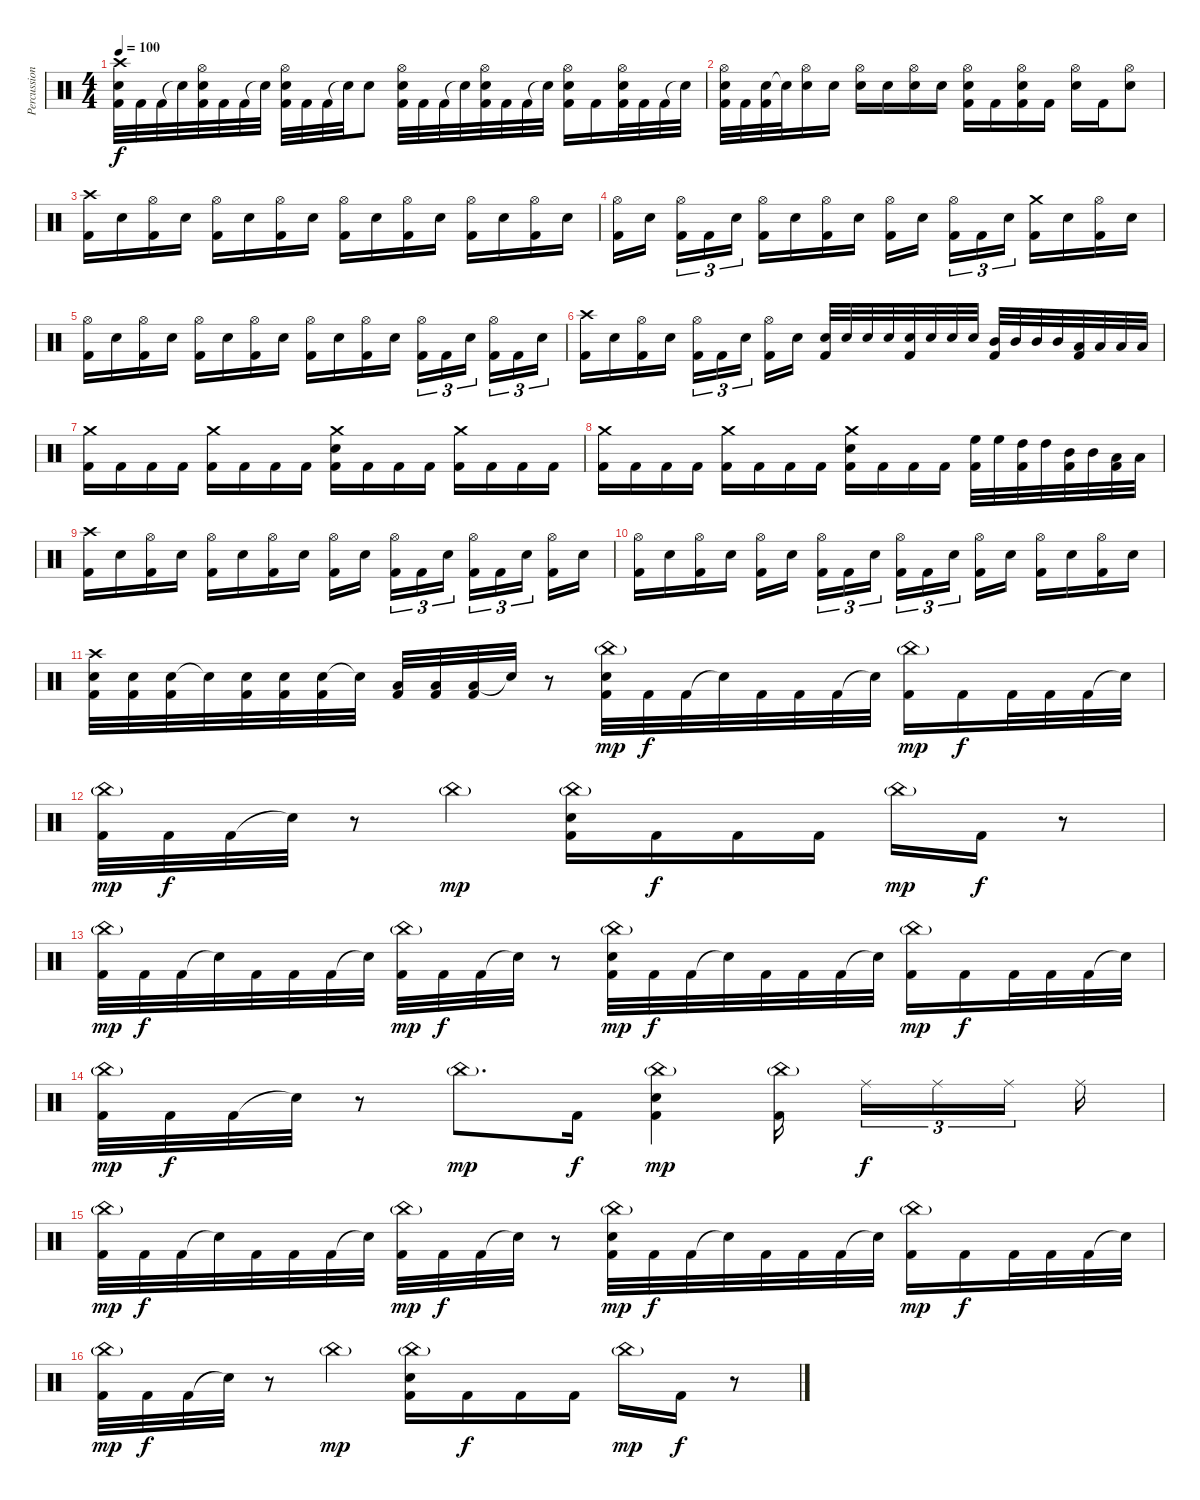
\track ("Percussion" "Percussion") {instrument percussion}
\staff {score}
\articulation defaults
\ts (4 4)
\tempo 100
\clef neutral
\ks c
("Crash high (hit)" "Electric Snare (hit)" "Kick (hit) 2").32{dy f} "Kick (hit) 2".32 "Kick (hit) 2".32 "Snare (hit)"{t}.32 ("Hi-Hat (open)" "Electric Snare (hit)" "Kick (hit) 2").32 "Kick (hit) 2".32 "Kick (hit) 2".32 "Snare (hit)"{t}.32 ("Hi-Hat (open)" "Electric Snare (hit)" "Kick (hit) 2").32 "Kick (hit) 2".32 "Kick (hit) 2".32 "Snare (hit)"{t}.32 "Electric Snare (hit)".8 ("Hi-Hat (open)" "Electric Snare (hit)" "Kick (hit) 2").32 "Kick (hit) 2".32 "Kick (hit) 2".32 "Snare (hit)"{t}.32 ("Hi-Hat (open)" "Electric Snare (hit)" "Kick (hit) 2").32 "Kick (hit) 2".32 "Kick (hit) 2".32 "Snare (hit)"{t}.32 ("Hi-Hat (open)" "Electric Snare (hit)" "Kick (hit) 2").16 "Kick (hit) 2".16 ("Hi-Hat (open)" "Electric Snare (hit)" "Kick (hit) 2").32 "Kick (hit) 2".32 "Kick (hit) 2".32 "Snare (hit)"{t}.32 |
("Hi-Hat (open)" "Electric Snare (hit)" "Kick (hit) 2").32 "Kick (hit) 2".32 ("Electric Snare (hit)" "Kick (hit) 2").32 "Snare (hit)"{t}.32 ("Hi-Hat (open)" "Electric Snare (hit)").16 "Electric Snare (hit)".16 ("Hi-Hat (open)" "Electric Snare (hit)").16 "Electric Snare (hit)".16 ("Hi-Hat (open)" "Electric Snare (hit)").16 "Electric Snare (hit)".16 ("Hi-Hat (open)" "Electric Snare (hit)" "Kick (hit) 2").16 "Kick (hit) 2".16 ("Hi-Hat (open)" "Electric Snare (hit)" "Kick (hit) 2").16 "Kick (hit) 2".16 ("Hi-Hat (open)" "Electric Snare (hit)").16 "Kick (hit) 2".16 ("Hi-Hat (open)" "Electric Snare (hit)").8 |
("Crash high (hit)" "Kick (hit) 2").16 "Electric Snare (hit)".16 ("Hi-Hat (open)" "Kick (hit) 2").16 "Electric Snare (hit)".16 ("Hi-Hat (open)" "Kick (hit) 2").16 "Electric Snare (hit)".16 ("Hi-Hat (open)" "Kick (hit) 2").16 "Electric Snare (hit)".16 ("Hi-Hat (open)" "Kick (hit) 2").16 "Electric Snare (hit)".16 ("Hi-Hat (open)" "Kick (hit) 2").16 "Electric Snare (hit)".16 ("Hi-Hat (open)" "Kick (hit) 2").16 "Electric Snare (hit)".16 ("Hi-Hat (open)" "Kick (hit) 2").16 "Electric Snare (hit)".16 |
("Hi-Hat (open)" "Kick (hit) 2").16 "Electric Snare (hit)".16{beam splitsecondary} ("Hi-Hat (open)" "Kick (hit) 2").16{tu (3 2)} "Kick (hit) 2".16{tu (3 2)} "Electric Snare (hit)".16{tu (3 2)} ("Hi-Hat (open)" "Kick (hit) 2").16 "Electric Snare (hit)".16 ("Hi-Hat (open)" "Kick (hit) 2").16 "Electric Snare (hit)".16 ("Hi-Hat (open)" "Kick (hit) 2").16 "Electric Snare (hit)".16{beam splitsecondary} ("Hi-Hat (open)" "Kick (hit) 2").16{tu (3 2)} "Kick (hit) 2".16{tu (3 2)} "Electric Snare (hit)".16{tu (3 2)} ("Crash medium (hit)" "Kick (hit) 2").16 "Electric Snare (hit)".16 ("Hi-Hat (open)" "Kick (hit) 2").16 "Electric Snare (hit)".16 |
("Hi-Hat (open)" "Kick (hit) 2").16 "Electric Snare (hit)".16 ("Hi-Hat (open)" "Kick (hit) 2").16 "Electric Snare (hit)".16 ("Hi-Hat (open)" "Kick (hit) 2").16 "Electric Snare (hit)".16 ("Hi-Hat (open)" "Kick (hit) 2").16 "Electric Snare (hit)".16 ("Hi-Hat (open)" "Kick (hit) 2").16 "Electric Snare (hit)".16 ("Hi-Hat (open)" "Kick (hit) 2").16 "Electric Snare (hit)".16 ("Hi-Hat (open)" "Kick (hit) 2").16{tu (3 2)} "Kick (hit) 2".16{tu (3 2)} "Electric Snare (hit)".16{tu (3 2) beam splitsecondary} ("Hi-Hat (open)" "Kick (hit) 2").16{tu (3 2)} "Kick (hit) 2".16{tu (3 2)} "Electric Snare (hit)".16{tu (3 2)} |
("Crash high (hit)" "Kick (hit) 2").16 "Electric Snare (hit)".16 ("Hi-Hat (open)" "Kick (hit) 2").16 "Electric Snare (hit)".16 ("Hi-Hat (open)" "Kick (hit) 2").16{tu (3 2)} "Kick (hit) 2".16{tu (3 2)} "Electric Snare (hit)".16{tu (3 2) beam splitsecondary} ("Hi-Hat (open)" "Kick (hit) 2").16 "Electric Snare (hit)".16 ("Electric Snare (hit)" "Kick (hit) 2").32 "Electric Snare (hit)".32 "Electric Snare (hit)".32 "Electric Snare (hit)".32 ("Electric Snare (hit)" "Kick (hit) 2").32 "Electric Snare (hit)".32 "Electric Snare (hit)".32 "Electric Snare (hit)".32 ("Mid Tom (hit)" "Kick (hit) 2").32 "Mid Tom (hit)".32 "Mid Tom (hit)".32 "Mid Tom (hit)".32 ("Low Tom (hit)" "Kick (hit) 2").32 "Low Tom (hit)".32 "Low Tom (hit)".32 "Low Tom (hit)".32 |
("Crash medium (hit)" "Kick (hit) 2").16 "Kick (hit) 2".16 "Kick (hit) 2".16 "Kick (hit) 2".16 ("Crash medium (hit)" "Kick (hit) 2").16 "Kick (hit) 2".16 "Kick (hit) 2".16 "Kick (hit) 2".16 ("Crash medium (hit)" "Electric Snare (hit)" "Kick (hit) 2").16 "Kick (hit) 2".16 "Kick (hit) 2".16 "Kick (hit) 2".16 ("Crash medium (hit)" "Kick (hit) 2").16 "Kick (hit) 2".16 "Kick (hit) 2".16 "Kick (hit) 2".16 |
("Crash medium (hit)" "Kick (hit) 2").16 "Kick (hit) 2".16 "Kick (hit) 2".16 "Kick (hit) 2".16 ("Crash medium (hit)" "Kick (hit) 2").16 "Kick (hit) 2".16 "Kick (hit) 2".16 "Kick (hit) 2".16 ("Crash medium (hit)" "Electric Snare (hit)" "Kick (hit) 2").16 "Kick (hit) 2".16 "Kick (hit) 2".16 "Kick (hit) 2".16 ("High Floor Tom (hit)" "Kick (hit) 2").32 "High Floor Tom (hit)".32 ("High Tom (hit)" "Kick (hit) 2").32 "High Tom (hit)".32 ("Mid Tom (hit)" "Kick (hit) 2").32 "Mid Tom (hit)".32 ("Low Tom (hit)" "Kick (hit) 2").32 "Low Tom (hit)".32 |
("Crash high (hit)" "Kick (hit) 2").16 "Electric Snare (hit)".16 ("Hi-Hat (open)" "Kick (hit) 2").16 "Electric Snare (hit)".16 ("Hi-Hat (open)" "Kick (hit) 2").16 "Electric Snare (hit)".16 ("Hi-Hat (open)" "Kick (hit) 2").16 "Electric Snare (hit)".16 ("Hi-Hat (open)" "Kick (hit) 2").16 "Electric Snare (hit)".16{beam splitsecondary} ("Hi-Hat (open)" "Kick (hit) 2").16{tu (3 2)} "Kick (hit) 2".16{tu (3 2)} "Electric Snare (hit)".16{tu (3 2)} ("Hi-Hat (open)" "Kick (hit) 2").16{tu (3 2)} "Kick (hit) 2".16{tu (3 2)} "Electric Snare (hit)".16{tu (3 2) beam splitsecondary} ("Hi-Hat (open)" "Kick (hit) 2").16 "Electric Snare (hit)".16 |
("Hi-Hat (open)" "Kick (hit) 2").16 "Electric Snare (hit)".16 ("Hi-Hat (open)" "Kick (hit) 2").16 "Electric Snare (hit)".16 ("Hi-Hat (open)" "Kick (hit) 2").16 "Electric Snare (hit)".16{beam splitsecondary} ("Hi-Hat (open)" "Kick (hit) 2").16{tu (3 2)} "Kick (hit) 2".16{tu (3 2)} "Electric Snare (hit)".16{tu (3 2)} ("Hi-Hat (open)" "Kick (hit) 2").16{tu (3 2)} "Kick (hit) 2".16{tu (3 2)} "Electric Snare (hit)".16{tu (3 2) beam splitsecondary} ("Hi-Hat (open)" "Kick (hit) 2").16 "Electric Snare (hit)".16 ("Hi-Hat (open)" "Kick (hit) 2").16 "Electric Snare (hit)".16 ("Hi-Hat (open)" "Kick (hit) 2").16 "Electric Snare (hit)".16 |
("Crash high (hit)" "Electric Snare (hit)" "Kick (hit) 2").32 ("Electric Snare (hit)" "Kick (hit) 2").32 ("Electric Snare (hit)" "Kick (hit) 2").32 "Snare (hit)"{t}.32 ("Electric Snare (hit)" "Kick (hit) 2").32 ("Electric Snare (hit)" "Kick (hit) 2").32 ("Electric Snare (hit)" "Kick (hit) 2").32 "Snare (hit)"{t}.32 ("Low Tom (hit)" "Kick (hit) 2").32 ("Low Tom (hit)" "Kick (hit) 2").32 ("Low Tom (hit)" "Kick (hit) 2").32 "Snare (hit)"{t}.32 r.8 ("China (hit)"{g} "Electric Snare (hit)" "Kick (hit) 2").32{dy mp} "Kick (hit) 2".32{dy f} "Kick (hit) 2".32 "Snare (hit)"{t}.32 "Kick (hit) 2".32 "Kick (hit) 2".32 "Kick (hit) 2".32 "Snare (hit)"{t}.32 ("China (hit)"{g} "Kick (hit) 2").16{dy mp} "Kick (hit) 2".16{dy f} "Kick (hit) 2".32 "Kick (hit) 2".32 "Kick (hit) 2".32 "Snare (hit)"{t}.32 |
("China (hit)"{g} "Kick (hit) 2").32{dy mp} "Kick (hit) 2".32{dy f} "Kick (hit) 2".32 "Snare (hit)"{t}.32 r.8 "China (hit)"{g}.4{dy mp} ("China (hit)"{g} "Electric Snare (hit)" "Kick (hit) 2").16 "Kick (hit) 2".16{dy f} "Kick (hit) 2".16 "Kick (hit) 2".16 "China (hit)"{g}.16{dy mp} "Kick (hit) 2".16{dy f} r.8 |
("China (hit)"{g} "Kick (hit) 2").32{dy mp} "Kick (hit) 2".32{dy f} "Kick (hit) 2".32 "Snare (hit)"{t}.32 "Kick (hit) 2".32 "Kick (hit) 2".32 "Kick (hit) 2".32 "Snare (hit)"{t}.32 ("China (hit)"{g} "Kick (hit) 2").32{dy mp} "Kick (hit) 2".32{dy f} "Kick (hit) 2".32 "Snare (hit)"{t}.32 r.8 ("China (hit)"{g} "Electric Snare (hit)" "Kick (hit) 2").32{dy mp} "Kick (hit) 2".32{dy f} "Kick (hit) 2".32 "Snare (hit)"{t}.32 "Kick (hit) 2".32 "Kick (hit) 2".32 "Kick (hit) 2".32 "Snare (hit)"{t}.32 ("China (hit)"{g} "Kick (hit) 2").16{dy mp} "Kick (hit) 2".16{dy f} "Kick (hit) 2".32 "Kick (hit) 2".32 "Kick (hit) 2".32 "Snare (hit)"{t}.32 |
("China (hit)"{g} "Kick (hit) 2").32{dy mp} "Kick (hit) 2".32{dy f} "Kick (hit) 2".32 "Snare (hit)"{t}.32 r.8 "China (hit)"{g}.8{d dy mp} "Kick (hit) 2".16{dy f} ("China (hit)"{g} "Electric Snare (hit)" "Kick (hit) 2").4{dy mp} ("China (hit)"{g} "Kick (hit) 2").16{beam splitsecondary} "Ride (middle)".16{tu (3 2) dy f} "Ride (middle)".16{tu (3 2)} "Ride (middle)".16{tu (3 2) beam splitsecondary} "Ride (middle)".16 |
("China (hit)"{g} "Kick (hit) 2").32{dy mp} "Kick (hit) 2".32{dy f} "Kick (hit) 2".32 "Snare (hit)"{t}.32 "Kick (hit) 2".32 "Kick (hit) 2".32 "Kick (hit) 2".32 "Snare (hit)"{t}.32 ("China (hit)"{g} "Kick (hit) 2").32{dy mp} "Kick (hit) 2".32{dy f} "Kick (hit) 2".32 "Snare (hit)"{t}.32 r.8 ("China (hit)"{g} "Electric Snare (hit)" "Kick (hit) 2").32{dy mp} "Kick (hit) 2".32{dy f} "Kick (hit) 2".32 "Snare (hit)"{t}.32 "Kick (hit) 2".32 "Kick (hit) 2".32 "Kick (hit) 2".32 "Snare (hit)"{t}.32 ("China (hit)"{g} "Kick (hit) 2").16{dy mp} "Kick (hit) 2".16{dy f} "Kick (hit) 2".32 "Kick (hit) 2".32 "Kick (hit) 2".32 "Snare (hit)"{t}.32 |
("China (hit)"{g} "Kick (hit) 2").32{dy mp} "Kick (hit) 2".32{dy f} "Kick (hit) 2".32 "Snare (hit)"{t}.32 r.8 "China (hit)"{g}.4{dy mp} ("China (hit)"{g} "Electric Snare (hit)" "Kick (hit) 2").16 "Kick (hit) 2".16{dy f} "Kick (hit) 2".16 "Kick (hit) 2".16 "China (hit)"{g}.16{dy mp} "Kick (hit) 2".16{dy f} r.8
